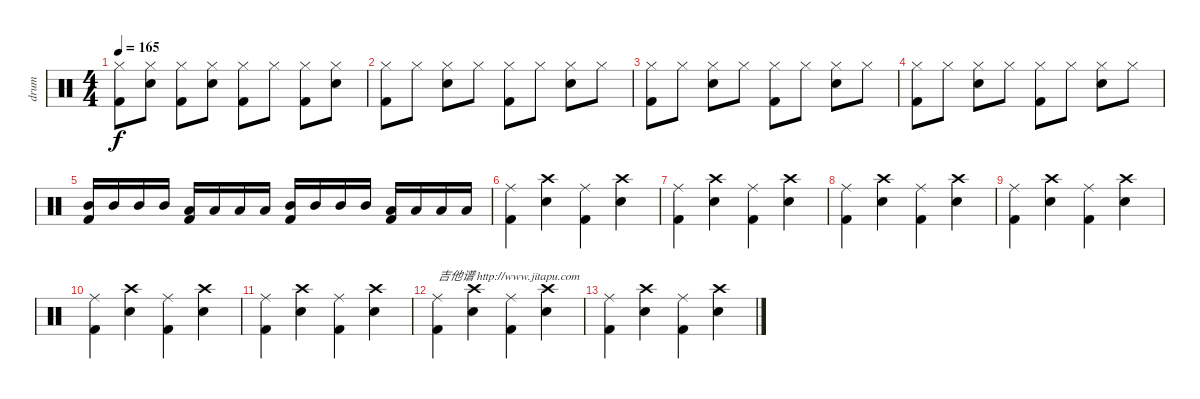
\track ("drum" "drum") {instrument percussion}
\staff {score}
\articulation defaults
\ts (4 4)
\tempo 165
\clef neutral
\ks c
("Hi-Hat (closed)" "Kick (hit) 2").8{dy f} ("Hi-Hat (closed)" "Snare (hit) 2").8 ("Hi-Hat (closed)" "Kick (hit) 2").8 ("Hi-Hat (closed)" "Snare (hit) 2").8 ("Hi-Hat (closed)" "Kick (hit) 2").8 "Hi-Hat (closed)".8 ("Hi-Hat (closed)" "Kick (hit) 2").8 ("Hi-Hat (closed)" "Snare (hit) 2").8 |
("Hi-Hat (closed)" "Kick (hit) 2").8 "Hi-Hat (closed)".8 ("Hi-Hat (closed)" "Snare (hit) 2").8 "Hi-Hat (closed)".8 ("Hi-Hat (closed)" "Kick (hit) 2").8 "Hi-Hat (closed)".8 ("Hi-Hat (closed)" "Snare (hit) 2").8 "Hi-Hat (closed)".8 |
("Hi-Hat (closed)" "Kick (hit) 2").8 "Hi-Hat (closed)".8 ("Hi-Hat (closed)" "Snare (hit) 2").8 "Hi-Hat (closed)".8 ("Hi-Hat (closed)" "Kick (hit) 2").8 "Hi-Hat (closed)".8 ("Hi-Hat (closed)" "Snare (hit) 2").8 "Hi-Hat (closed)".8 |
("Hi-Hat (closed)" "Kick (hit) 2").8 "Hi-Hat (closed)".8 ("Hi-Hat (closed)" "Snare (hit) 2").8 "Hi-Hat (closed)".8 ("Hi-Hat (closed)" "Kick (hit) 2").8 "Hi-Hat (closed)".8 ("Hi-Hat (closed)" "Snare (hit) 2").8 "Hi-Hat (closed)".8 |
("Mid Tom (hit)" "Kick (hit) 2").16 "Mid Tom (hit)".16 "Mid Tom (hit)".16 "Mid Tom (hit)".16 ("Low Tom (hit)" "Kick (hit) 2").16 "Low Tom (hit)".16 "Low Tom (hit)".16 "Low Tom (hit)".16 ("Mid Tom (hit)" "Kick (hit) 2").16 "Mid Tom (hit)".16 "Mid Tom (hit)".16 "Mid Tom (hit)".16 ("Low Tom (hit)" "Kick (hit) 2").16 "Low Tom (hit)".16 "Low Tom (hit)".16 "Low Tom (hit)".16 |
("Ride (middle)" "Kick (hit) 2").4 ("Crash high (hit)" "Snare (hit) 2").4 ("Ride (middle)" "Kick (hit) 2").4 ("Crash high (hit)" "Snare (hit) 2").4 |
("Ride (middle)" "Kick (hit) 2").4 ("Crash high (hit)" "Snare (hit) 2").4 ("Ride (middle)" "Kick (hit) 2").4 ("Crash high (hit)" "Snare (hit) 2").4 |
("Ride (middle)" "Kick (hit) 2").4 ("Crash high (hit)" "Snare (hit) 2").4 ("Ride (middle)" "Kick (hit) 2").4 ("Crash high (hit)" "Snare (hit) 2").4 |
("Ride (middle)" "Kick (hit) 2").4 ("Crash high (hit)" "Snare (hit) 2").4 ("Ride (middle)" "Kick (hit) 2").4 ("Crash high (hit)" "Snare (hit) 2").4 |
("Ride (middle)" "Kick (hit) 2").4{volume 13} ("Crash high (hit)" "Snare (hit) 2").4{volume 12} ("Ride (middle)" "Kick (hit) 2").4{volume 11} ("Crash high (hit)" "Snare (hit) 2").4{volume 10} |
("Ride (middle)" "Kick (hit) 2").4{volume 9} ("Crash high (hit)" "Snare (hit) 2").4{volume 8} ("Ride (middle)" "Kick (hit) 2").4{volume 8} ("Crash high (hit)" "Snare (hit) 2").4{volume 7} |
("Ride (middle)" "Kick (hit) 2").4{txt "吉他谱 http://www.jitapu.com" volume 6} ("Crash high (hit)" "Snare (hit) 2").4{volume 5} ("Ride (middle)" "Kick (hit) 2").4{volume 4} ("Crash high (hit)" "Snare (hit) 2").4{volume 4} |
("Ride (middle)" "Kick (hit) 2").4{volume 3} ("Crash high (hit)" "Snare (hit) 2").4{volume 2} ("Ride (middle)" "Kick (hit) 2").4{volume 2} ("Crash high (hit)" "Snare (hit) 2").4{volume 1}
